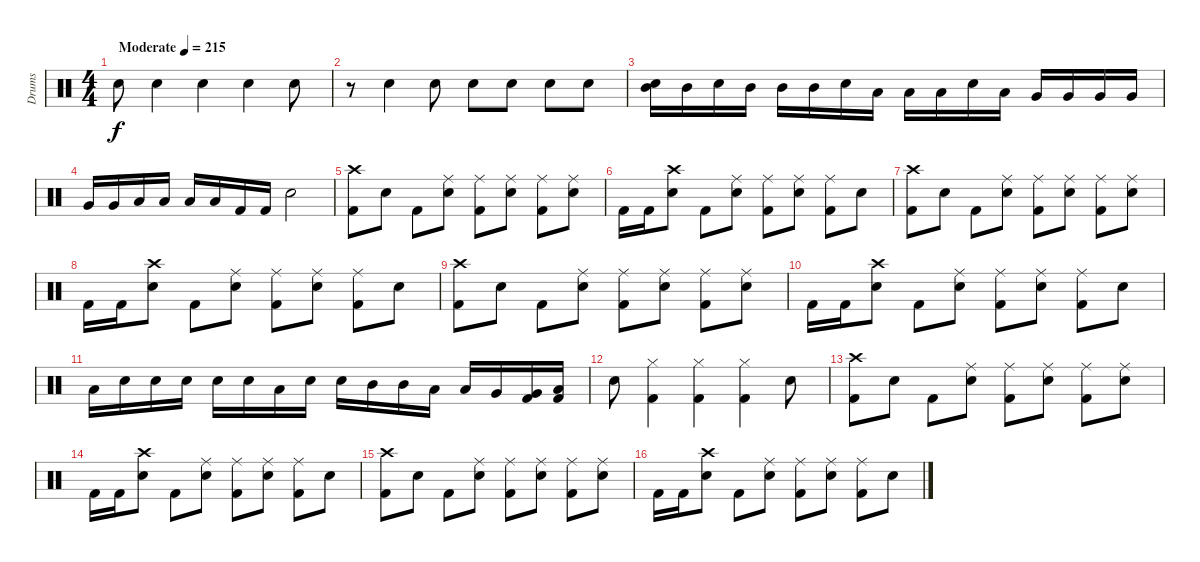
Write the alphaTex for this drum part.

\track ("Drums" "Drums") {instrument percussion}
\staff {score}
\articulation defaults
\ts (4 4)
\tempo (215 "Moderate")
\clef neutral
\ks c "Electric Snare (hit)".8{dy f} "Electric Snare (hit)".4 "Electric Snare (hit)".4 "Electric Snare (hit)".4 "Electric Snare (hit)".8
|
r.8 "Electric Snare (hit)".4 "Electric Snare (hit)".8 "Electric Snare (hit)".8 "Electric Snare (hit)".8 "Electric Snare (hit)".8 "Electric Snare (hit)".8 |
("Electric Snare (hit)" "Mid Tom (hit)").16 "Mid Tom (hit)".16 "Electric Snare (hit)".16 "Mid Tom (hit)".16 "Mid Tom (hit)".16 "Mid Tom (hit)".16 "Electric Snare (hit)".16 "Low Tom (hit)".16 "Low Tom (hit)".16 "Low Tom (hit)".16 "Electric Snare (hit)".16 "Low Tom (hit)".16 "Very Low Tom (hit)".16 "Very Low Tom (hit)".16 "Very Low Tom (hit)".16 "Very Low Tom (hit)".16 |
"Very Low Tom (hit)".16 "Very Low Tom (hit)".16 "Low Floor Tom (hit)".16 "Low Floor Tom (hit)".16 "Low Floor Tom (hit)".16 "Low Floor Tom (hit)".16 "Kick (hit) 2".16 "Kick (hit) 2".16 "Electric Snare (hit)".2 |
("Crash high (hit)" "Kick (hit) 2").8 "Electric Snare (hit)".8 "Kick (hit) 2".8 ("Electric Snare (hit)" "Ride (middle)").8 ("Ride (middle)" "Kick (hit) 2").8 ("Electric Snare (hit)" "Ride (middle)").8 ("Ride (middle)" "Kick (hit) 2").8 ("Electric Snare (hit)" "Ride (middle)").8 |
"Kick (hit) 2".16 "Kick (hit) 2".16 ("Electric Snare (hit)" "Crash high (hit)").8 "Kick (hit) 2".8 ("Electric Snare (hit)" "Ride (middle)").8 ("Ride (middle)" "Kick (hit) 2").8 ("Electric Snare (hit)" "Ride (middle)").8 ("Ride (middle)" "Kick (hit) 2").8 "Electric Snare (hit)".8 |
("Crash high (hit)" "Kick (hit) 2").8 "Electric Snare (hit)".8 "Kick (hit) 2".8 ("Electric Snare (hit)" "Ride (middle)").8 ("Ride (middle)" "Kick (hit) 2").8 ("Electric Snare (hit)" "Ride (middle)").8 ("Ride (middle)" "Kick (hit) 2").8 ("Electric Snare (hit)" "Ride (middle)").8 |
"Kick (hit) 2".16 "Kick (hit) 2".16 ("Electric Snare (hit)" "Crash high (hit)").8 "Kick (hit) 2".8 ("Electric Snare (hit)" "Ride (middle)").8 ("Ride (middle)" "Kick (hit) 2").8 ("Electric Snare (hit)" "Ride (middle)").8 ("Ride (middle)" "Kick (hit) 2").8 "Electric Snare (hit)".8 |
("Crash high (hit)" "Kick (hit) 2").8 "Electric Snare (hit)".8 "Kick (hit) 2".8 ("Electric Snare (hit)" "Ride (middle)").8 ("Ride (middle)" "Kick (hit) 2").8 ("Electric Snare (hit)" "Ride (middle)").8 ("Ride (middle)" "Kick (hit) 2").8 ("Electric Snare (hit)" "Ride (middle)").8 |
"Kick (hit) 2".16 "Kick (hit) 2".16 ("Electric Snare (hit)" "Crash high (hit)").8 "Kick (hit) 2".8 ("Electric Snare (hit)" "Ride (middle)").8 ("Ride (middle)" "Kick (hit) 2").8 ("Electric Snare (hit)" "Ride (middle)").8 ("Ride (middle)" "Kick (hit) 2").8 "Electric Snare (hit)".8 |
"Low Floor Tom (hit)".16 "Electric Snare (hit)".16 "Electric Snare (hit)".16 "Electric Snare (hit)".16 "Electric Snare (hit)".16 "Electric Snare (hit)".16 "Low Floor Tom (hit)".16 "Electric Snare (hit)".16 "Electric Snare (hit)".16 "Mid Tom (hit)".16 "Mid Tom (hit)".16 "Low Tom (hit)".16 "Low Tom (hit)".16 "Very Low Tom (hit)".16 ("Very Low Tom (hit)" "Kick (hit) 2").16 ("Low Floor Tom (hit)" "Kick (hit) 2").16 |
"Electric Snare (hit)".8 ("Hi-Hat (closed)" "Kick (hit) 2").4 ("Hi-Hat (closed)" "Kick (hit) 2").4 ("Hi-Hat (closed)" "Kick (hit) 2").4 "Electric Snare (hit)".8 |
("Crash high (hit)" "Kick (hit) 2").8 "Electric Snare (hit)".8 "Kick (hit) 2".8 ("Electric Snare (hit)" "Ride (middle)").8 ("Ride (middle)" "Kick (hit) 2").8 ("Electric Snare (hit)" "Ride (middle)").8 ("Ride (middle)" "Kick (hit) 2").8 ("Electric Snare (hit)" "Ride (middle)").8 |
"Kick (hit) 2".16 "Kick (hit) 2".16 ("Electric Snare (hit)" "Crash high (hit)").8 "Kick (hit) 2".8 ("Electric Snare (hit)" "Ride (middle)").8 ("Ride (middle)" "Kick (hit) 2").8 ("Electric Snare (hit)" "Ride (middle)").8 ("Ride (middle)" "Kick (hit) 2").8 "Electric Snare (hit)".8 |
("Crash high (hit)" "Kick (hit) 2").8 "Electric Snare (hit)".8 "Kick (hit) 2".8 ("Electric Snare (hit)" "Ride (middle)").8 ("Ride (middle)" "Kick (hit) 2").8 ("Electric Snare (hit)" "Ride (middle)").8 ("Ride (middle)" "Kick (hit) 2").8 ("Electric Snare (hit)" "Ride (middle)").8 |
"Kick (hit) 2".16 "Kick (hit) 2".16 ("Electric Snare (hit)" "Crash high (hit)").8 "Kick (hit) 2".8 ("Electric Snare (hit)" "Ride (middle)").8 ("Ride (middle)" "Kick (hit) 2").8 ("Electric Snare (hit)" "Ride (middle)").8 ("Ride (middle)" "Kick (hit) 2").8 "Electric Snare (hit)".8
